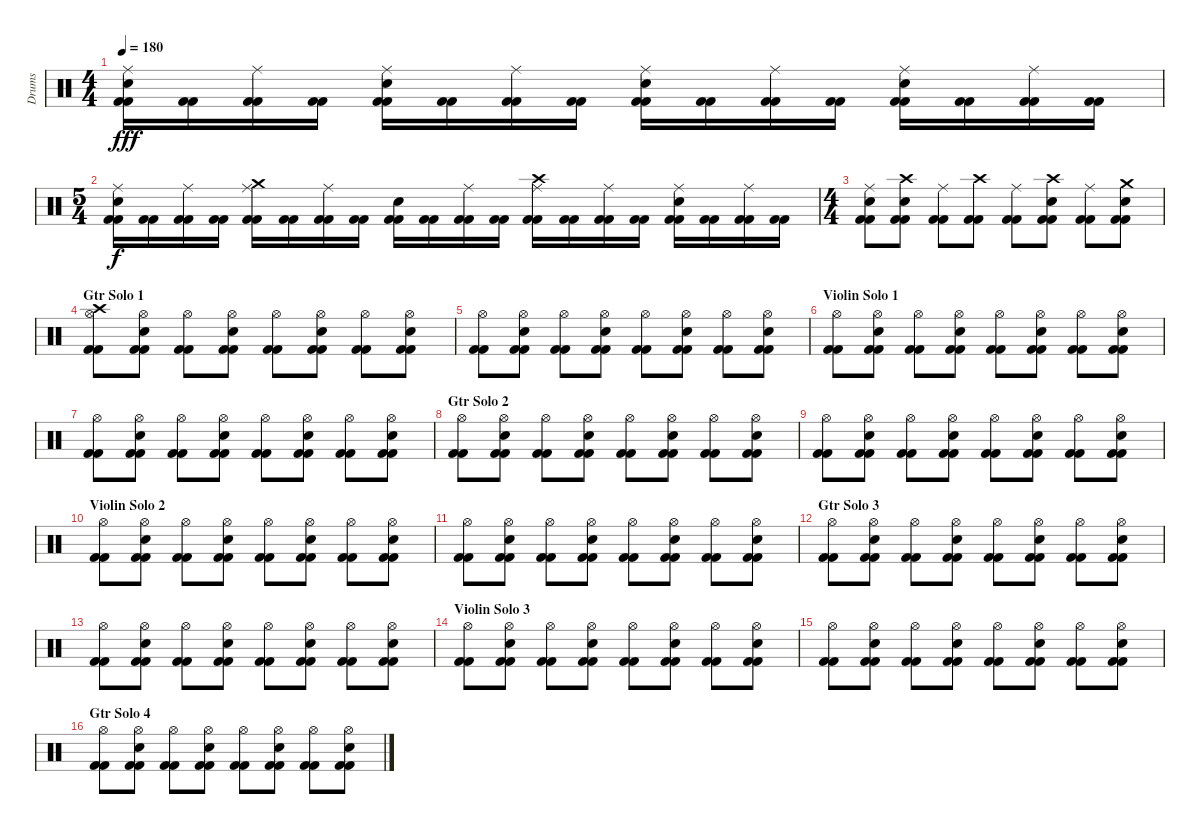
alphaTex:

\track ("Drums" "Drums") {instrument percussion}
\staff {score}
\articulation defaults
\ts (4 4)
\tempo 180
\clef neutral
\ks c
("Kick (hit) 2" "Kick (hit) 2" "Electric Snare (hit)" "Ride (middle)").16{dy fff} ("Kick (hit) 2" "Kick (hit) 2").16 ("Kick (hit) 2" "Kick (hit) 2" "Ride (middle)").16 ("Kick (hit) 2" "Kick (hit) 2").16 ("Kick (hit) 2" "Kick (hit) 2" "Electric Snare (hit)" "Ride (middle)").16 ("Kick (hit) 2" "Kick (hit) 2").16 ("Kick (hit) 2" "Kick (hit) 2" "Ride (middle)").16 ("Kick (hit) 2" "Kick (hit) 2").16 ("Kick (hit) 2" "Kick (hit) 2" "Electric Snare (hit)" "Ride (middle)").16 ("Kick (hit) 2" "Kick (hit) 2").16 ("Kick (hit) 2" "Kick (hit) 2" "Ride (middle)").16 ("Kick (hit) 2" "Kick (hit) 2").16 ("Kick (hit) 2" "Kick (hit) 2" "Electric Snare (hit)" "Ride (middle)").16 ("Kick (hit) 2" "Kick (hit) 2").16 ("Kick (hit) 2" "Kick (hit) 2" "Ride (middle)").16 ("Kick (hit) 2" "Kick (hit) 2").16 |
\ts (5 4)
("Kick (hit) 2" "Kick (hit) 2" "Electric Snare (hit)" "Ride (middle)").16{dy f} ("Kick (hit) 2" "Kick (hit) 2").16 ("Kick (hit) 2" "Kick (hit) 2" "Ride (middle)").16 ("Kick (hit) 2" "Kick (hit) 2").16 ("Kick (hit) 2" "Kick (hit) 2" "Crash medium (hit)" "Ride (middle)").16 ("Kick (hit) 2" "Kick (hit) 2").16 ("Kick (hit) 2" "Kick (hit) 2" "Ride (middle)").16 ("Kick (hit) 2" "Kick (hit) 2").16 ("Kick (hit) 2" "Kick (hit) 2" "Snare (hit) 2").16 ("Kick (hit) 2" "Kick (hit) 2").16 ("Kick (hit) 2" "Kick (hit) 2" "Ride (middle)").16 ("Kick (hit) 2" "Kick (hit) 2").16 ("Kick (hit) 2" "Kick (hit) 2" "Crash high (hit)" "Ride (middle)").16 ("Kick (hit) 2" "Kick (hit) 2").16 ("Kick (hit) 2" "Kick (hit) 2" "Ride (middle)").16 ("Kick (hit) 2" "Kick (hit) 2").16 ("Kick (hit) 2" "Kick (hit) 2" "Snare (hit) 2" "Ride (middle)").16 ("Kick (hit) 2" "Kick (hit) 2").16 ("Kick (hit) 2" "Kick (hit) 2" "Ride (middle)").16 ("Kick (hit) 2" "Kick (hit) 2").16 |
\ts (4 4)
("Kick (hit) 2" "Kick (hit) 2" "Electric Snare (hit)" "Ride (middle)").8 ("Kick (hit) 2" "Kick (hit) 2" "Snare (hit) 2" "Crash high (hit)").8 ("Kick (hit) 2" "Kick (hit) 2" "Ride (middle)").8 ("Kick (hit) 2" "Kick (hit) 2" "Crash high (hit)").8 ("Kick (hit) 2" "Kick (hit) 2" "Ride (middle)").8 ("Kick (hit) 2" "Kick (hit) 2" "Electric Snare (hit)" "Crash high (hit)").8 ("Kick (hit) 2" "Kick (hit) 2" "Ride (middle)").8 ("Kick (hit) 2" "Kick (hit) 2" "Electric Snare (hit)" "Crash medium (hit)").8 |
\section ("" "Gtr Solo 1")
("Hi-Hat (open)" "Crash high (hit)" "Kick (hit) 2" "Kick (hit) 2").8 ("Hi-Hat (open)" "Snare (hit) 2" "Kick (hit) 2" "Kick (hit) 2").8 ("Hi-Hat (open)" "Kick (hit) 2" "Kick (hit) 2").8 ("Hi-Hat (open)" "Snare (hit) 2" "Kick (hit) 2" "Kick (hit) 2").8 ("Hi-Hat (open)" "Kick (hit) 2" "Kick (hit) 2").8 ("Hi-Hat (open)" "Snare (hit) 2" "Kick (hit) 2" "Kick (hit) 2").8 ("Hi-Hat (open)" "Kick (hit) 2" "Kick (hit) 2").8 ("Hi-Hat (open)" "Snare (hit) 2" "Kick (hit) 2" "Kick (hit) 2").8 |
("Hi-Hat (open)" "Kick (hit) 2" "Kick (hit) 2").8 ("Hi-Hat (open)" "Snare (hit) 2" "Kick (hit) 2" "Kick (hit) 2").8 ("Hi-Hat (open)" "Kick (hit) 2" "Kick (hit) 2").8 ("Hi-Hat (open)" "Snare (hit) 2" "Kick (hit) 2" "Kick (hit) 2").8 ("Hi-Hat (open)" "Kick (hit) 2" "Kick (hit) 2").8 ("Hi-Hat (open)" "Snare (hit) 2" "Kick (hit) 2" "Kick (hit) 2").8 ("Hi-Hat (open)" "Kick (hit) 2" "Kick (hit) 2").8 ("Hi-Hat (open)" "Snare (hit) 2" "Kick (hit) 2" "Kick (hit) 2").8 |
\section ("" "Violin Solo 1")
("Hi-Hat (open)" "Kick (hit) 2" "Kick (hit) 2").8 ("Hi-Hat (open)" "Snare (hit) 2" "Kick (hit) 2" "Kick (hit) 2").8 ("Hi-Hat (open)" "Kick (hit) 2" "Kick (hit) 2").8 ("Hi-Hat (open)" "Snare (hit) 2" "Kick (hit) 2" "Kick (hit) 2").8 ("Hi-Hat (open)" "Kick (hit) 2" "Kick (hit) 2").8 ("Hi-Hat (open)" "Snare (hit) 2" "Kick (hit) 2" "Kick (hit) 2").8 ("Hi-Hat (open)" "Kick (hit) 2" "Kick (hit) 2").8 ("Hi-Hat (open)" "Snare (hit) 2" "Kick (hit) 2" "Kick (hit) 2").8 |
("Hi-Hat (open)" "Kick (hit) 2" "Kick (hit) 2").8 ("Hi-Hat (open)" "Snare (hit) 2" "Kick (hit) 2" "Kick (hit) 2").8 ("Hi-Hat (open)" "Kick (hit) 2" "Kick (hit) 2").8 ("Hi-Hat (open)" "Snare (hit) 2" "Kick (hit) 2" "Kick (hit) 2").8 ("Hi-Hat (open)" "Kick (hit) 2" "Kick (hit) 2").8 ("Hi-Hat (open)" "Snare (hit) 2" "Kick (hit) 2" "Kick (hit) 2").8 ("Hi-Hat (open)" "Kick (hit) 2" "Kick (hit) 2").8 ("Hi-Hat (open)" "Snare (hit) 2" "Kick (hit) 2" "Kick (hit) 2").8 |
\section ("" "Gtr Solo 2")
("Hi-Hat (open)" "Kick (hit) 2" "Kick (hit) 2").8 ("Hi-Hat (open)" "Snare (hit) 2" "Kick (hit) 2" "Kick (hit) 2").8 ("Hi-Hat (open)" "Kick (hit) 2" "Kick (hit) 2").8 ("Hi-Hat (open)" "Snare (hit) 2" "Kick (hit) 2" "Kick (hit) 2").8 ("Hi-Hat (open)" "Kick (hit) 2" "Kick (hit) 2").8 ("Hi-Hat (open)" "Snare (hit) 2" "Kick (hit) 2" "Kick (hit) 2").8 ("Hi-Hat (open)" "Kick (hit) 2" "Kick (hit) 2").8 ("Hi-Hat (open)" "Snare (hit) 2" "Kick (hit) 2" "Kick (hit) 2").8 |
("Hi-Hat (open)" "Kick (hit) 2" "Kick (hit) 2").8 ("Hi-Hat (open)" "Snare (hit) 2" "Kick (hit) 2" "Kick (hit) 2").8 ("Hi-Hat (open)" "Kick (hit) 2" "Kick (hit) 2").8 ("Hi-Hat (open)" "Snare (hit) 2" "Kick (hit) 2" "Kick (hit) 2").8 ("Hi-Hat (open)" "Kick (hit) 2" "Kick (hit) 2").8 ("Hi-Hat (open)" "Snare (hit) 2" "Kick (hit) 2" "Kick (hit) 2").8 ("Hi-Hat (open)" "Kick (hit) 2" "Kick (hit) 2").8 ("Hi-Hat (open)" "Snare (hit) 2" "Kick (hit) 2" "Kick (hit) 2").8 |
\section ("" "Violin Solo 2")
("Hi-Hat (open)" "Kick (hit) 2" "Kick (hit) 2").8 ("Hi-Hat (open)" "Snare (hit) 2" "Kick (hit) 2" "Kick (hit) 2").8 ("Hi-Hat (open)" "Kick (hit) 2" "Kick (hit) 2").8 ("Hi-Hat (open)" "Snare (hit) 2" "Kick (hit) 2" "Kick (hit) 2").8 ("Hi-Hat (open)" "Kick (hit) 2" "Kick (hit) 2").8 ("Hi-Hat (open)" "Snare (hit) 2" "Kick (hit) 2" "Kick (hit) 2").8 ("Hi-Hat (open)" "Kick (hit) 2" "Kick (hit) 2").8 ("Hi-Hat (open)" "Snare (hit) 2" "Kick (hit) 2" "Kick (hit) 2").8 |
("Hi-Hat (open)" "Kick (hit) 2" "Kick (hit) 2").8 ("Hi-Hat (open)" "Snare (hit) 2" "Kick (hit) 2" "Kick (hit) 2").8 ("Hi-Hat (open)" "Kick (hit) 2" "Kick (hit) 2").8 ("Hi-Hat (open)" "Snare (hit) 2" "Kick (hit) 2" "Kick (hit) 2").8 ("Hi-Hat (open)" "Kick (hit) 2" "Kick (hit) 2").8 ("Hi-Hat (open)" "Snare (hit) 2" "Kick (hit) 2" "Kick (hit) 2").8 ("Hi-Hat (open)" "Kick (hit) 2" "Kick (hit) 2").8 ("Hi-Hat (open)" "Snare (hit) 2" "Kick (hit) 2" "Kick (hit) 2").8 |
\section ("" "Gtr Solo 3")
("Hi-Hat (open)" "Kick (hit) 2" "Kick (hit) 2").8 ("Hi-Hat (open)" "Snare (hit) 2" "Kick (hit) 2" "Kick (hit) 2").8 ("Hi-Hat (open)" "Kick (hit) 2" "Kick (hit) 2").8 ("Hi-Hat (open)" "Snare (hit) 2" "Kick (hit) 2" "Kick (hit) 2").8 ("Hi-Hat (open)" "Kick (hit) 2" "Kick (hit) 2").8 ("Hi-Hat (open)" "Snare (hit) 2" "Kick (hit) 2" "Kick (hit) 2").8 ("Hi-Hat (open)" "Kick (hit) 2" "Kick (hit) 2").8 ("Hi-Hat (open)" "Snare (hit) 2" "Kick (hit) 2" "Kick (hit) 2").8 |
("Hi-Hat (open)" "Kick (hit) 2" "Kick (hit) 2").8 ("Hi-Hat (open)" "Snare (hit) 2" "Kick (hit) 2" "Kick (hit) 2").8 ("Hi-Hat (open)" "Kick (hit) 2" "Kick (hit) 2").8 ("Hi-Hat (open)" "Snare (hit) 2" "Kick (hit) 2" "Kick (hit) 2").8 ("Hi-Hat (open)" "Kick (hit) 2" "Kick (hit) 2").8 ("Hi-Hat (open)" "Snare (hit) 2" "Kick (hit) 2" "Kick (hit) 2").8 ("Hi-Hat (open)" "Kick (hit) 2" "Kick (hit) 2").8 ("Hi-Hat (open)" "Snare (hit) 2" "Kick (hit) 2" "Kick (hit) 2").8 |
\section ("" "Violin Solo 3")
("Hi-Hat (open)" "Kick (hit) 2" "Kick (hit) 2").8 ("Hi-Hat (open)" "Snare (hit) 2" "Kick (hit) 2" "Kick (hit) 2").8 ("Hi-Hat (open)" "Kick (hit) 2" "Kick (hit) 2").8 ("Hi-Hat (open)" "Snare (hit) 2" "Kick (hit) 2" "Kick (hit) 2").8 ("Hi-Hat (open)" "Kick (hit) 2" "Kick (hit) 2").8 ("Hi-Hat (open)" "Snare (hit) 2" "Kick (hit) 2" "Kick (hit) 2").8 ("Hi-Hat (open)" "Kick (hit) 2" "Kick (hit) 2").8 ("Hi-Hat (open)" "Snare (hit) 2" "Kick (hit) 2" "Kick (hit) 2").8 |
("Hi-Hat (open)" "Kick (hit) 2" "Kick (hit) 2").8 ("Hi-Hat (open)" "Snare (hit) 2" "Kick (hit) 2" "Kick (hit) 2").8 ("Hi-Hat (open)" "Kick (hit) 2" "Kick (hit) 2").8 ("Hi-Hat (open)" "Snare (hit) 2" "Kick (hit) 2" "Kick (hit) 2").8 ("Hi-Hat (open)" "Kick (hit) 2" "Kick (hit) 2").8 ("Hi-Hat (open)" "Snare (hit) 2" "Kick (hit) 2" "Kick (hit) 2").8 ("Hi-Hat (open)" "Kick (hit) 2" "Kick (hit) 2").8 ("Hi-Hat (open)" "Snare (hit) 2" "Kick (hit) 2" "Kick (hit) 2").8 |
\section ("" "Gtr Solo 4")
("Hi-Hat (open)" "Kick (hit) 2" "Kick (hit) 2").8 ("Hi-Hat (open)" "Snare (hit) 2" "Kick (hit) 2" "Kick (hit) 2").8 ("Hi-Hat (open)" "Kick (hit) 2" "Kick (hit) 2").8 ("Hi-Hat (open)" "Snare (hit) 2" "Kick (hit) 2" "Kick (hit) 2").8 ("Hi-Hat (open)" "Kick (hit) 2" "Kick (hit) 2").8 ("Hi-Hat (open)" "Snare (hit) 2" "Kick (hit) 2" "Kick (hit) 2").8 ("Hi-Hat (open)" "Kick (hit) 2" "Kick (hit) 2").8 ("Hi-Hat (open)" "Snare (hit) 2" "Kick (hit) 2" "Kick (hit) 2").8
